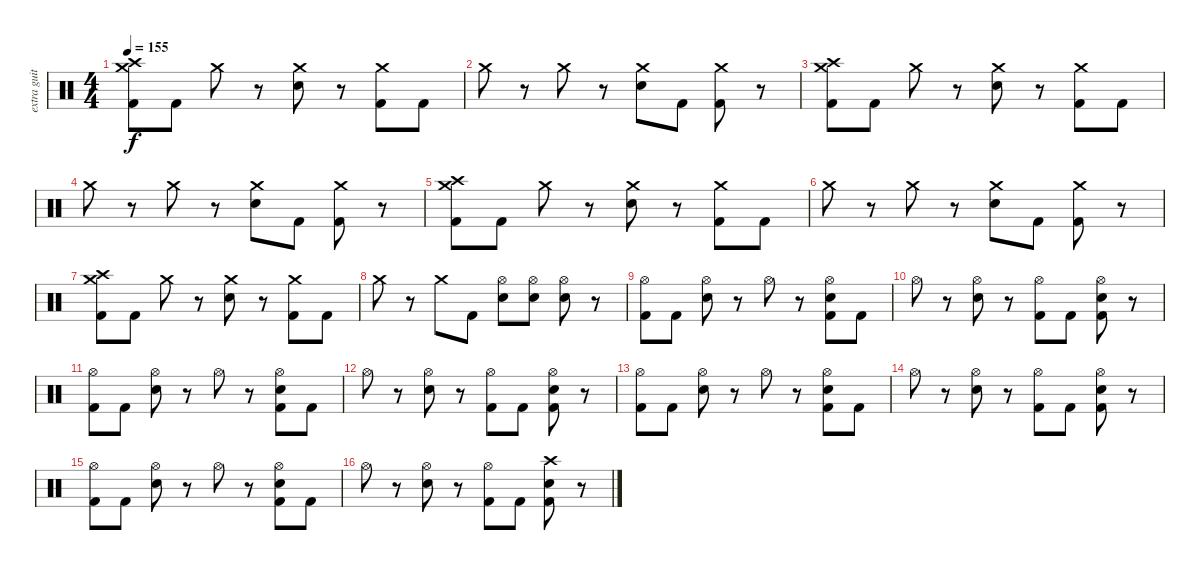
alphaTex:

\track ("extra guitar" "extra guit") {instrument percussion}
\staff {score}
\articulation defaults
\ts (4 4)
\tempo 155
\clef neutral
\ks c
("Crash medium (hit)" "Crash high (hit)" "Kick (hit) 2").8{dy f} "Kick (hit) 2".8 "Crash medium (hit)".8 r.8 ("Crash medium (hit)" "Electric Snare (hit)").8 r.8 ("Crash medium (hit)" "Kick (hit) 2").8 "Kick (hit) 2".8 |
"Crash medium (hit)".8 r.8 "Crash medium (hit)".8 r.8 ("Crash medium (hit)" "Electric Snare (hit)").8 "Kick (hit) 2".8 ("Crash medium (hit)" "Kick (hit) 2").8 r.8 |
("Crash medium (hit)" "Crash high (hit)" "Kick (hit) 2").8 "Kick (hit) 2".8 "Crash medium (hit)".8 r.8 ("Crash medium (hit)" "Electric Snare (hit)").8 r.8 ("Crash medium (hit)" "Kick (hit) 2").8 "Kick (hit) 2".8 |
"Crash medium (hit)".8 r.8 "Crash medium (hit)".8 r.8 ("Crash medium (hit)" "Electric Snare (hit)").8 "Kick (hit) 2".8 ("Crash medium (hit)" "Kick (hit) 2").8 r.8 |
("Crash medium (hit)" "Crash high (hit)" "Kick (hit) 2").8 "Kick (hit) 2".8 "Crash medium (hit)".8 r.8 ("Crash medium (hit)" "Electric Snare (hit)").8 r.8 ("Crash medium (hit)" "Kick (hit) 2").8 "Kick (hit) 2".8 |
"Crash medium (hit)".8 r.8 "Crash medium (hit)".8 r.8 ("Crash medium (hit)" "Electric Snare (hit)").8 "Kick (hit) 2".8 ("Crash medium (hit)" "Kick (hit) 2").8 r.8 |
("Crash medium (hit)" "Crash high (hit)" "Kick (hit) 2").8 "Kick (hit) 2".8 "Crash medium (hit)".8 r.8 ("Crash medium (hit)" "Electric Snare (hit)").8 r.8 ("Crash medium (hit)" "Kick (hit) 2").8 "Kick (hit) 2".8 |
"Crash medium (hit)".8 r.8 "Crash medium (hit)".8 "Kick (hit) 2".8 ("Hi-Hat (open)" "Electric Snare (hit)").8 ("Hi-Hat (open)" "Electric Snare (hit)").8 ("Hi-Hat (open)" "Electric Snare (hit)").8 r.8 |
("Hi-Hat (open)" "Kick (hit) 2").8 "Kick (hit) 2".8 ("Hi-Hat (open)" "Electric Snare (hit)").8 r.8 "Hi-Hat (open)".8 r.8 ("Hi-Hat (open)" "Electric Snare (hit)" "Kick (hit) 2").8 "Kick (hit) 2".8 |
"Hi-Hat (open)".8 r.8 ("Hi-Hat (open)" "Electric Snare (hit)").8 r.8 ("Hi-Hat (open)" "Kick (hit) 2").8 "Kick (hit) 2".8 ("Hi-Hat (open)" "Electric Snare (hit)" "Kick (hit) 2").8 r.8 |
("Hi-Hat (open)" "Kick (hit) 2").8 "Kick (hit) 2".8 ("Hi-Hat (open)" "Electric Snare (hit)").8 r.8 "Hi-Hat (open)".8 r.8 ("Hi-Hat (open)" "Electric Snare (hit)" "Kick (hit) 2").8 "Kick (hit) 2".8 |
"Hi-Hat (open)".8 r.8 ("Hi-Hat (open)" "Electric Snare (hit)").8 r.8 ("Hi-Hat (open)" "Kick (hit) 2").8 "Kick (hit) 2".8 ("Hi-Hat (open)" "Electric Snare (hit)" "Kick (hit) 2").8 r.8 |
("Hi-Hat (open)" "Kick (hit) 2").8 "Kick (hit) 2".8 ("Hi-Hat (open)" "Electric Snare (hit)").8 r.8 "Hi-Hat (open)".8 r.8 ("Hi-Hat (open)" "Electric Snare (hit)" "Kick (hit) 2").8 "Kick (hit) 2".8 |
"Hi-Hat (open)".8 r.8 ("Hi-Hat (open)" "Electric Snare (hit)").8 r.8 ("Hi-Hat (open)" "Kick (hit) 2").8 "Kick (hit) 2".8 ("Hi-Hat (open)" "Electric Snare (hit)" "Kick (hit) 2").8 r.8 |
("Hi-Hat (open)" "Kick (hit) 2").8 "Kick (hit) 2".8 ("Hi-Hat (open)" "Electric Snare (hit)").8 r.8 "Hi-Hat (open)".8 r.8 ("Hi-Hat (open)" "Electric Snare (hit)" "Kick (hit) 2").8 "Kick (hit) 2".8 |
"Hi-Hat (open)".8 r.8 ("Hi-Hat (open)" "Electric Snare (hit)").8 r.8 ("Hi-Hat (open)" "Kick (hit) 2").8 "Kick (hit) 2".8 ("Crash high (hit)" "Electric Snare (hit)" "Kick (hit) 2").8 r.8
